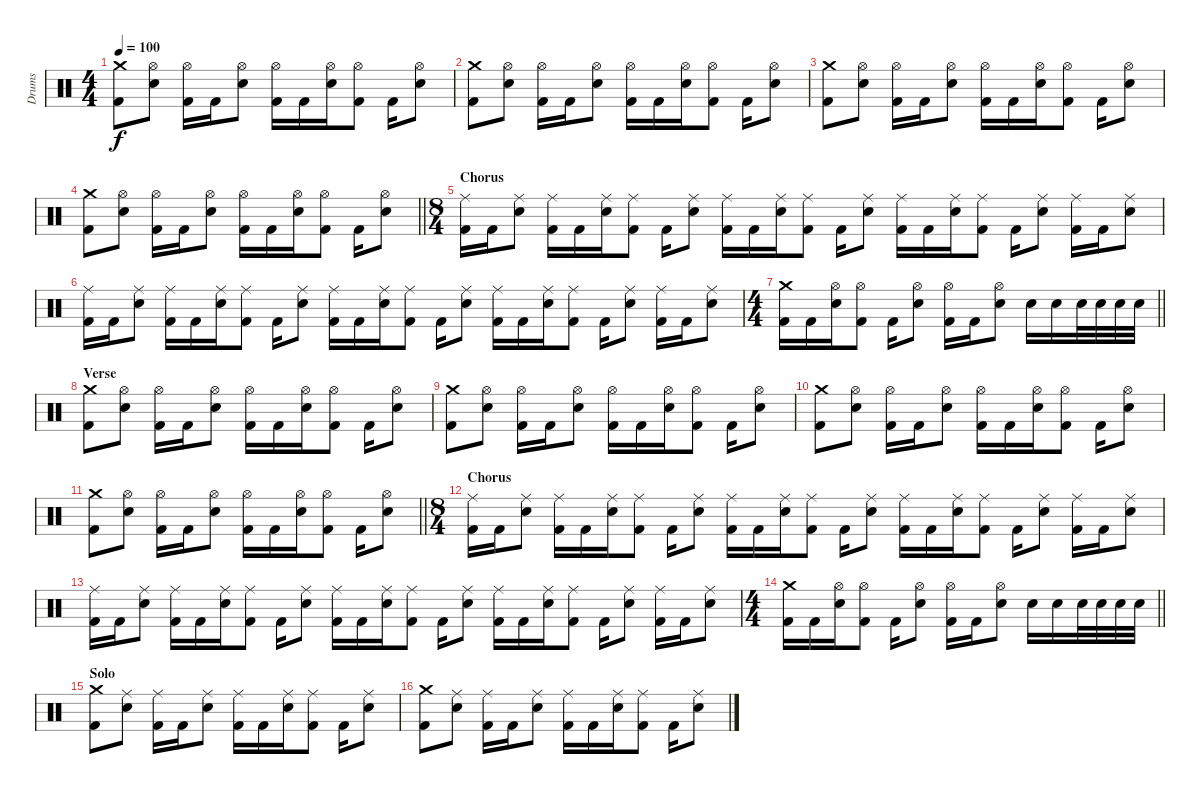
\track ("Drums" "Drums") {instrument percussion}
\staff {score}
\articulation defaults
\ts (4 4)
\tempo 100
\clef neutral
\ks c
("Crash medium (hit)" "Kick (hit) 2").8{dy f} ("Hi-Hat (open)" "Snare (hit) 2").8 ("Hi-Hat (open)" "Kick (hit) 2").16 "Kick (hit) 2".16 ("Hi-Hat (open)" "Snare (hit) 2").8 ("Hi-Hat (open)" "Kick (hit) 2").16 "Kick (hit) 2".16 ("Hi-Hat (open)" "Snare (hit) 2").16 ("Hi-Hat (open)" "Kick (hit) 2").8 "Kick (hit) 2".16 ("Hi-Hat (open)" "Snare (hit) 2").8 |
("Crash medium (hit)" "Kick (hit) 2").8 ("Hi-Hat (open)" "Snare (hit) 2").8 ("Hi-Hat (open)" "Kick (hit) 2").16 "Kick (hit) 2".16 ("Hi-Hat (open)" "Snare (hit) 2").8 ("Hi-Hat (open)" "Kick (hit) 2").16 "Kick (hit) 2".16 ("Hi-Hat (open)" "Snare (hit) 2").16 ("Hi-Hat (open)" "Kick (hit) 2").8 "Kick (hit) 2".16 ("Hi-Hat (open)" "Snare (hit) 2").8 |
("Crash medium (hit)" "Kick (hit) 2").8 ("Hi-Hat (open)" "Snare (hit) 2").8 ("Hi-Hat (open)" "Kick (hit) 2").16 "Kick (hit) 2".16 ("Hi-Hat (open)" "Snare (hit) 2").8 ("Hi-Hat (open)" "Kick (hit) 2").16 "Kick (hit) 2".16 ("Hi-Hat (open)" "Snare (hit) 2").16 ("Hi-Hat (open)" "Kick (hit) 2").8 "Kick (hit) 2".16 ("Hi-Hat (open)" "Snare (hit) 2").8 |
\barLineRight lightlight
("Crash medium (hit)" "Kick (hit) 2").8 ("Hi-Hat (open)" "Snare (hit) 2").8 ("Hi-Hat (open)" "Kick (hit) 2").16 "Kick (hit) 2".16 ("Hi-Hat (open)" "Snare (hit) 2").8 ("Hi-Hat (open)" "Kick (hit) 2").16 "Kick (hit) 2".16 ("Hi-Hat (open)" "Snare (hit) 2").16 ("Hi-Hat (open)" "Kick (hit) 2").8 "Kick (hit) 2".16 ("Hi-Hat (open)" "Snare (hit) 2").8 |
\ts (8 4)
\section ("" "Chorus")
("Ride (middle)" "Kick (hit) 2").16 "Kick (hit) 2".16 ("Ride (middle)" "Snare (hit) 2").8 ("Ride (middle)" "Kick (hit) 2").16 "Kick (hit) 2".16 ("Ride (middle)" "Snare (hit) 2").16 ("Ride (middle)" "Kick (hit) 2").8 "Kick (hit) 2".16 ("Ride (middle)" "Snare (hit) 2").8 ("Ride (middle)" "Kick (hit) 2").16 "Kick (hit) 2".16 ("Ride (middle)" "Snare (hit) 2").16 ("Ride (middle)" "Kick (hit) 2").8 "Kick (hit) 2".16 ("Ride (middle)" "Snare (hit) 2").8 ("Ride (middle)" "Kick (hit) 2").16 "Kick (hit) 2".16 ("Ride (middle)" "Snare (hit) 2").16 ("Ride (middle)" "Kick (hit) 2").8 "Kick (hit) 2".16 ("Ride (middle)" "Snare (hit) 2").8 ("Ride (middle)" "Kick (hit) 2").16 "Kick (hit) 2".16 ("Ride (middle)" "Snare (hit) 2").8 |
("Ride (middle)" "Kick (hit) 2").16 "Kick (hit) 2".16 ("Ride (middle)" "Snare (hit) 2").8 ("Ride (middle)" "Kick (hit) 2").16 "Kick (hit) 2".16 ("Ride (middle)" "Snare (hit) 2").16 ("Ride (middle)" "Kick (hit) 2").8 "Kick (hit) 2".16 ("Ride (middle)" "Snare (hit) 2").8 ("Ride (middle)" "Kick (hit) 2").16 "Kick (hit) 2".16 ("Ride (middle)" "Snare (hit) 2").16 ("Ride (middle)" "Kick (hit) 2").8 "Kick (hit) 2".16 ("Ride (middle)" "Snare (hit) 2").8 ("Ride (middle)" "Kick (hit) 2").16 "Kick (hit) 2".16 ("Ride (middle)" "Snare (hit) 2").16 ("Ride (middle)" "Kick (hit) 2").8 "Kick (hit) 2".16 ("Ride (middle)" "Snare (hit) 2").8 ("Ride (middle)" "Kick (hit) 2").16 "Kick (hit) 2".16 ("Ride (middle)" "Snare (hit) 2").8 |
\ts (4 4)
\barLineRight lightlight
("Crash medium (hit)" "Kick (hit) 2").16 "Kick (hit) 2".16 ("Hi-Hat (open)" "Snare (hit) 2").16 ("Hi-Hat (open)" "Kick (hit) 2").8 "Kick (hit) 2".16 ("Hi-Hat (open)" "Snare (hit) 2").8 ("Hi-Hat (open)" "Kick (hit) 2").16 "Kick (hit) 2".16 ("Hi-Hat (open)" "Snare (hit) 2").8 "Snare (hit) 2".16 "Snare (hit) 2".16 "Snare (hit) 2".32 "Snare (hit) 2".32 "Snare (hit) 2".32 "Snare (hit) 2".32 |
\section ("" "Verse")
("Crash medium (hit)" "Kick (hit) 2").8 ("Hi-Hat (open)" "Snare (hit) 2").8 ("Hi-Hat (open)" "Kick (hit) 2").16 "Kick (hit) 2".16 ("Hi-Hat (open)" "Snare (hit) 2").8 ("Hi-Hat (open)" "Kick (hit) 2").16 "Kick (hit) 2".16 ("Hi-Hat (open)" "Snare (hit) 2").16 ("Hi-Hat (open)" "Kick (hit) 2").8 "Kick (hit) 2".16 ("Hi-Hat (open)" "Snare (hit) 2").8 |
("Crash medium (hit)" "Kick (hit) 2").8 ("Hi-Hat (open)" "Snare (hit) 2").8 ("Hi-Hat (open)" "Kick (hit) 2").16 "Kick (hit) 2".16 ("Hi-Hat (open)" "Snare (hit) 2").8 ("Hi-Hat (open)" "Kick (hit) 2").16 "Kick (hit) 2".16 ("Hi-Hat (open)" "Snare (hit) 2").16 ("Hi-Hat (open)" "Kick (hit) 2").8 "Kick (hit) 2".16 ("Hi-Hat (open)" "Snare (hit) 2").8 |
("Crash medium (hit)" "Kick (hit) 2").8 ("Hi-Hat (open)" "Snare (hit) 2").8 ("Hi-Hat (open)" "Kick (hit) 2").16 "Kick (hit) 2".16 ("Hi-Hat (open)" "Snare (hit) 2").8 ("Hi-Hat (open)" "Kick (hit) 2").16 "Kick (hit) 2".16 ("Hi-Hat (open)" "Snare (hit) 2").16 ("Hi-Hat (open)" "Kick (hit) 2").8 "Kick (hit) 2".16 ("Hi-Hat (open)" "Snare (hit) 2").8 |
\barLineRight lightlight
("Crash medium (hit)" "Kick (hit) 2").8 ("Hi-Hat (open)" "Snare (hit) 2").8 ("Hi-Hat (open)" "Kick (hit) 2").16 "Kick (hit) 2".16 ("Hi-Hat (open)" "Snare (hit) 2").8 ("Hi-Hat (open)" "Kick (hit) 2").16 "Kick (hit) 2".16 ("Hi-Hat (open)" "Snare (hit) 2").16 ("Hi-Hat (open)" "Kick (hit) 2").8 "Kick (hit) 2".16 ("Hi-Hat (open)" "Snare (hit) 2").8 |
\ts (8 4)
\section ("" "Chorus")
("Ride (middle)" "Kick (hit) 2").16 "Kick (hit) 2".16 ("Ride (middle)" "Snare (hit) 2").8 ("Ride (middle)" "Kick (hit) 2").16 "Kick (hit) 2".16 ("Ride (middle)" "Snare (hit) 2").16 ("Ride (middle)" "Kick (hit) 2").8 "Kick (hit) 2".16 ("Ride (middle)" "Snare (hit) 2").8 ("Ride (middle)" "Kick (hit) 2").16 "Kick (hit) 2".16 ("Ride (middle)" "Snare (hit) 2").16 ("Ride (middle)" "Kick (hit) 2").8 "Kick (hit) 2".16 ("Ride (middle)" "Snare (hit) 2").8 ("Ride (middle)" "Kick (hit) 2").16 "Kick (hit) 2".16 ("Ride (middle)" "Snare (hit) 2").16 ("Ride (middle)" "Kick (hit) 2").8 "Kick (hit) 2".16 ("Ride (middle)" "Snare (hit) 2").8 ("Ride (middle)" "Kick (hit) 2").16 "Kick (hit) 2".16 ("Ride (middle)" "Snare (hit) 2").8 |
("Ride (middle)" "Kick (hit) 2").16 "Kick (hit) 2".16 ("Ride (middle)" "Snare (hit) 2").8 ("Ride (middle)" "Kick (hit) 2").16 "Kick (hit) 2".16 ("Ride (middle)" "Snare (hit) 2").16 ("Ride (middle)" "Kick (hit) 2").8 "Kick (hit) 2".16 ("Ride (middle)" "Snare (hit) 2").8 ("Ride (middle)" "Kick (hit) 2").16 "Kick (hit) 2".16 ("Ride (middle)" "Snare (hit) 2").16 ("Ride (middle)" "Kick (hit) 2").8 "Kick (hit) 2".16 ("Ride (middle)" "Snare (hit) 2").8 ("Ride (middle)" "Kick (hit) 2").16 "Kick (hit) 2".16 ("Ride (middle)" "Snare (hit) 2").16 ("Ride (middle)" "Kick (hit) 2").8 "Kick (hit) 2".16 ("Ride (middle)" "Snare (hit) 2").8 ("Ride (middle)" "Kick (hit) 2").16 "Kick (hit) 2".16 ("Ride (middle)" "Snare (hit) 2").8 |
\ts (4 4)
\barLineRight lightlight
("Crash medium (hit)" "Kick (hit) 2").16 "Kick (hit) 2".16 ("Hi-Hat (open)" "Snare (hit) 2").16 ("Hi-Hat (open)" "Kick (hit) 2").8 "Kick (hit) 2".16 ("Hi-Hat (open)" "Snare (hit) 2").8 ("Hi-Hat (open)" "Kick (hit) 2").16 "Kick (hit) 2".16 ("Hi-Hat (open)" "Snare (hit) 2").8 "Snare (hit) 2".16 "Snare (hit) 2".16 "Snare (hit) 2".32 "Snare (hit) 2".32 "Snare (hit) 2".32 "Snare (hit) 2".32 |
\section ("" "Solo")
("Crash medium (hit)" "Kick (hit) 2").8 ("Ride (middle)" "Snare (hit) 2").8 ("Ride (middle)" "Kick (hit) 2").16 "Kick (hit) 2".16 ("Ride (middle)" "Snare (hit) 2").8 ("Ride (middle)" "Kick (hit) 2").16 "Kick (hit) 2".16 ("Ride (middle)" "Snare (hit) 2").16 ("Ride (middle)" "Kick (hit) 2").8 "Kick (hit) 2".16 ("Ride (middle)" "Snare (hit) 2").8 |
("Crash medium (hit)" "Kick (hit) 2").8 ("Ride (middle)" "Snare (hit) 2").8 ("Ride (middle)" "Kick (hit) 2").16 "Kick (hit) 2".16 ("Ride (middle)" "Snare (hit) 2").8 ("Ride (middle)" "Kick (hit) 2").16 "Kick (hit) 2".16 ("Ride (middle)" "Snare (hit) 2").16 ("Ride (middle)" "Kick (hit) 2").8 "Kick (hit) 2".16 ("Ride (middle)" "Snare (hit) 2").8
